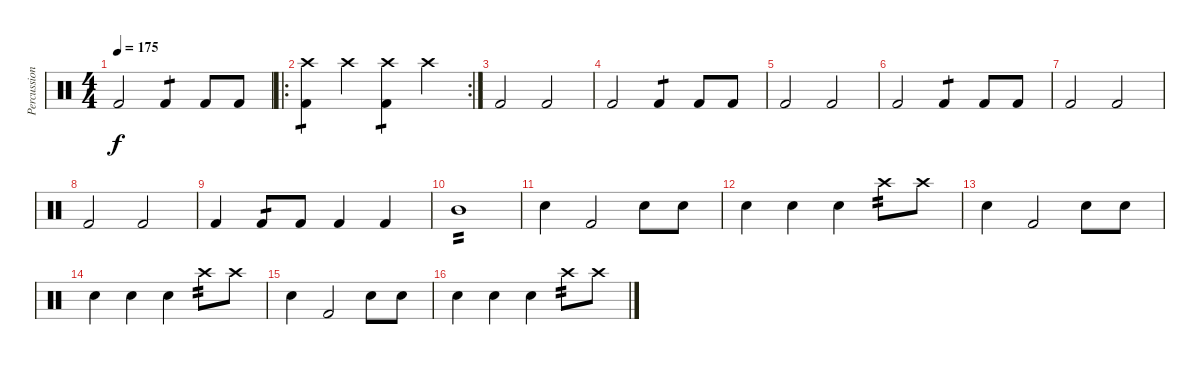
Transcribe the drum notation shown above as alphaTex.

\track ("Percussion" "Percussion") {instrument percussion}
\staff {score}
\articulation defaults
\ts (4 4)
\tempo 175
\clef neutral
\ks c "Kick (hit) 2".2{dy f} "Kick (hit) 2".4{tp 1} "Kick (hit) 2".8 "Kick (hit) 2".8
|
\ro
\rc 2
("Crash high (hit)" "Kick (hit) 2").4{tp 1} "Crash high (hit)".4 ("Crash high (hit)" "Kick (hit) 2").4{tp 1} "Crash high (hit)".4 |
"Kick (hit) 2".2 "Kick (hit) 2".2 |
"Kick (hit) 2".2 "Kick (hit) 2".4{tp 1} "Kick (hit) 2".8 "Kick (hit) 2".8 |
"Kick (hit) 2".2 "Kick (hit) 2".2 |
"Kick (hit) 2".2 "Kick (hit) 2".4{tp 1} "Kick (hit) 2".8 "Kick (hit) 2".8 |
"Kick (hit) 2".2 "Kick (hit) 2".2 |
"Kick (hit) 2".2 "Kick (hit) 2".2 |
"Kick (hit) 2".4 "Kick (hit) 2".8{tp 1} "Kick (hit) 2".8 "Kick (hit) 2".4 "Kick (hit) 2".4 |
"Mid Tom (hit)".1{tp 2} |
"Snare (hit) 2".4 "Kick (hit) 2".2 "Snare (hit) 2".8 "Snare (hit) 2".8 |
"Snare (hit) 2".4 "Snare (hit) 2".4 "Snare (hit) 2".4 "Crash high (hit)".8{tp 2} "Crash high (hit)".8 |
"Snare (hit) 2".4 "Kick (hit) 2".2 "Snare (hit) 2".8 "Snare (hit) 2".8 |
"Snare (hit) 2".4 "Snare (hit) 2".4 "Snare (hit) 2".4 "Crash high (hit)".8{tp 2} "Crash high (hit)".8 |
"Snare (hit) 2".4 "Kick (hit) 2".2 "Snare (hit) 2".8 "Snare (hit) 2".8 |
"Snare (hit) 2".4 "Snare (hit) 2".4 "Snare (hit) 2".4 "Crash high (hit)".8{tp 2} "Crash high (hit)".8
